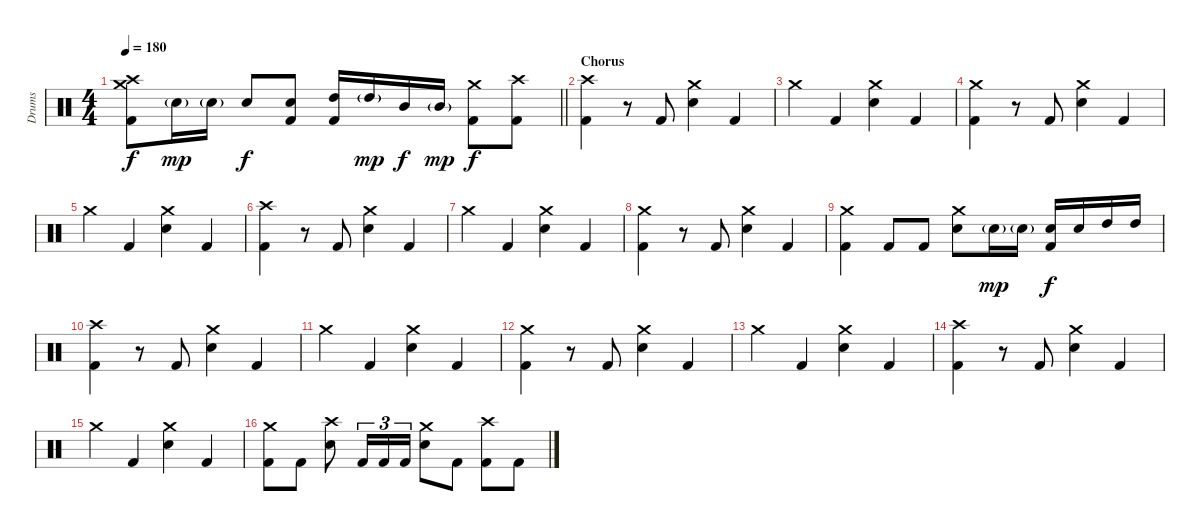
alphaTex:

\track ("Drums" "Drums") {instrument percussion}
\staff {score}
\articulation defaults
\ts (4 4)
\tempo 180
\clef neutral
\barLineRight lightlight
\ks c
("Crash high (hit)" "Crash medium (hit)" "Kick (hit) 2").8{dy f} "Snare (hit) 2"{g}.16{dy mp} "Snare (hit) 2"{g}.16 "Snare (hit) 2".8{dy f} ("Snare (hit) 2" "Kick (hit) 2").8 ("High Tom (hit)" "Kick (hit) 2").16 "High Tom (hit)"{g}.16{dy mp} "Mid Tom (hit)".16{dy f} "Mid Tom (hit)"{g}.16{dy mp} ("Crash medium (hit)" "Kick (hit) 2").8{dy f} ("Crash high (hit)" "Kick (hit) 2").8 |
\section ("" "Chorus")
("Crash high (hit)" "Kick (hit) 2").4 r.8 "Kick (hit) 2".8 ("Crash medium (hit)" "Snare (hit) 2").4 "Kick (hit) 2".4 |
"Crash medium (hit)".4 "Kick (hit) 2".4 ("Crash medium (hit)" "Snare (hit) 2").4 "Kick (hit) 2".4 |
("Crash medium (hit)" "Kick (hit) 2").4 r.8 "Kick (hit) 2".8 ("Crash medium (hit)" "Snare (hit) 2").4 "Kick (hit) 2".4 |
"Crash medium (hit)".4 "Kick (hit) 2".4 ("Crash medium (hit)" "Snare (hit) 2").4 "Kick (hit) 2".4 |
("Crash high (hit)" "Kick (hit) 2").4 r.8 "Kick (hit) 2".8 ("Crash medium (hit)" "Snare (hit) 2").4 "Kick (hit) 2".4 |
"Crash medium (hit)".4 "Kick (hit) 2".4 ("Crash medium (hit)" "Snare (hit) 2").4 "Kick (hit) 2".4 |
("Crash medium (hit)" "Kick (hit) 2").4 r.8 "Kick (hit) 2".8 ("Crash medium (hit)" "Snare (hit) 2").4 "Kick (hit) 2".4 |
("Crash medium (hit)" "Kick (hit) 2").4 "Kick (hit) 2".8 "Kick (hit) 2".8 ("Crash medium (hit)" "Snare (hit) 2").8 "Snare (hit) 2"{g}.16{dy mp} "Snare (hit) 2"{g}.16 ("Snare (hit) 2" "Kick (hit) 2").16{dy f} "Snare (hit) 2".16 "High Tom (hit)".16 "High Tom (hit)".16 |
("Crash high (hit)" "Kick (hit) 2").4 r.8 "Kick (hit) 2".8 ("Crash medium (hit)" "Snare (hit) 2").4 "Kick (hit) 2".4 |
"Crash medium (hit)".4 "Kick (hit) 2".4 ("Crash medium (hit)" "Snare (hit) 2").4 "Kick (hit) 2".4 |
("Crash medium (hit)" "Kick (hit) 2").4 r.8 "Kick (hit) 2".8 ("Crash medium (hit)" "Snare (hit) 2").4 "Kick (hit) 2".4 |
"Crash medium (hit)".4 "Kick (hit) 2".4 ("Crash medium (hit)" "Snare (hit) 2").4 "Kick (hit) 2".4 |
("Crash high (hit)" "Kick (hit) 2").4 r.8 "Kick (hit) 2".8 ("Crash medium (hit)" "Snare (hit) 2").4 "Kick (hit) 2".4 |
"Crash medium (hit)".4 "Kick (hit) 2".4 ("Crash medium (hit)" "Snare (hit) 2").4 "Kick (hit) 2".4 |
("Crash medium (hit)" "Kick (hit) 2").8 "Kick (hit) 2".8 ("Crash high (hit)" "Snare (hit) 2").8 "Kick (hit) 2".16{tu (3 2)} "Kick (hit) 2".16{tu (3 2)} "Kick (hit) 2".16{tu (3 2)} ("Crash medium (hit)" "Snare (hit) 2").8 "Kick (hit) 2".8 ("Crash high (hit)" "Kick (hit) 2").8 "Kick (hit) 2".8
